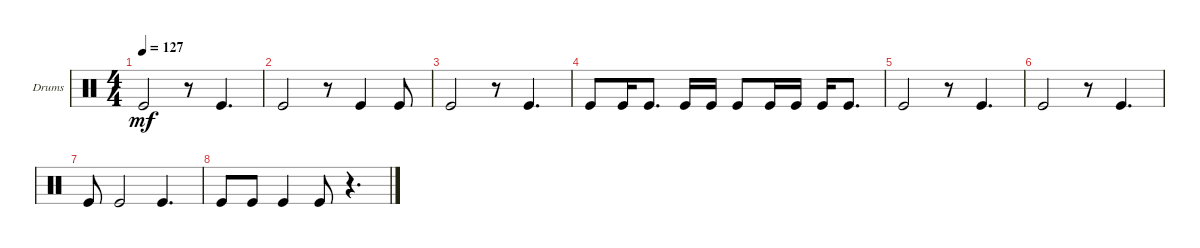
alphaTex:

\bracketExtendMode groupsimilarinstruments
\firstSystemTrackNameOrientation horizontal
\otherSystemsTrackNameOrientation horizontal
\track ("Drum Bass" "Drums") {instrument percussion}
\staff {score}
\articulation defaults
\ts (4 4)
\tempo 127
\clef neutral
\ks c "Kick (hit)".2{dy mf}
r.8 "Kick (hit)".4{d} |
"Kick (hit)".2 r.8 "Kick (hit)".4 "Kick (hit)".8 |
"Kick (hit)".2 r.8 "Kick (hit)".4{d} |
"Kick (hit)".8 "Kick (hit)".16 "Kick (hit)".8{d} "Kick (hit)".16 "Kick (hit)".16 "Kick (hit)".8 "Kick (hit)".16 "Kick (hit)".16 "Kick (hit)".16 "Kick (hit)".8{d} |
"Kick (hit)".2 r.8 "Kick (hit)".4{d} |
"Kick (hit)".2 r.8 "Kick (hit)".4{d} |
"Kick (hit)".8 "Kick (hit)".2 "Kick (hit)".4{d} |
"Kick (hit)".8 "Kick (hit)".8 "Kick (hit)".4 "Kick (hit)".8 r.4{d}
